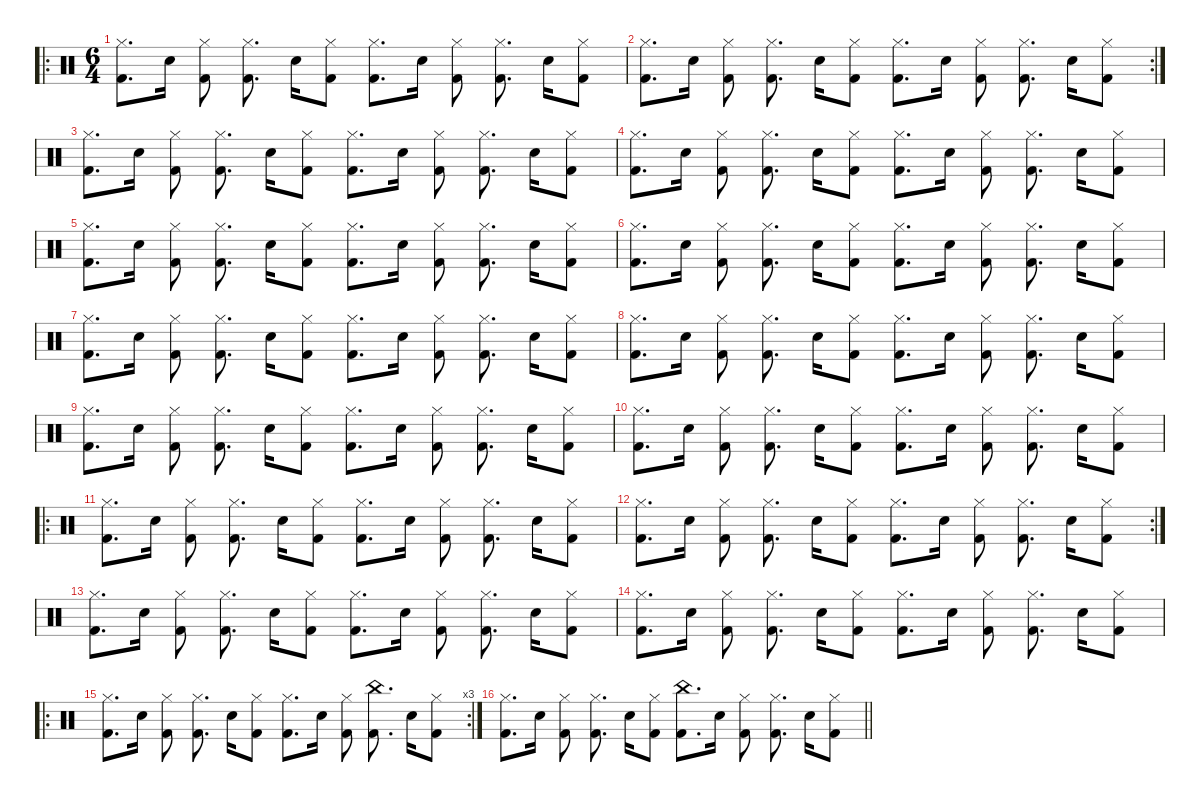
\defaultSystemsLayout 4
\hideDynamics
\bracketExtendMode nobrackets
\singleTrackTrackNamePolicy hidden
\multiTrackTrackNamePolicy hidden
\firstSystemTrackNameMode fullname
\firstSystemTrackNameOrientation horizontal
\otherSystemsTrackNameOrientation horizontal
\track ("Percussion" "drm.") {instrument percussion}
\staff {score}
\articulation defaults
\ro
\ts (6 4)
\tempo (98 hide)
\clef neutral
\ks c
("Hi-Hat (closed)" "Kick (hit) 2").8{d dy mf beam Down} "Snare (hit) 2".16{dy f beam Down} ("Hi-Hat (closed)" "Kick (hit) 2").8{dy mf beam Down beam split} ("Hi-Hat (closed)" "Kick (hit) 2").8{d beam Down} "Snare (hit) 2".16{dy f beam Down} ("Hi-Hat (closed)" "Kick (hit) 2").8{dy mf beam Down} ("Hi-Hat (closed)" "Kick (hit) 2").8{d beam Down} "Snare (hit) 2".16{dy f beam Down} ("Hi-Hat (closed)" "Kick (hit) 2").8{dy mf beam Down beam split} ("Hi-Hat (closed)" "Kick (hit) 2").8{d beam Down} "Snare (hit) 2".16{dy f beam Down} ("Hi-Hat (closed)" "Kick (hit) 2").8{dy mf beam Down} |
\rc 2
\tempo (97 hide)
("Hi-Hat (closed)" "Kick (hit) 2").8{d beam Down} "Snare (hit) 2".16{dy f beam Down} ("Hi-Hat (closed)" "Kick (hit) 2").8{dy mf beam Down beam split} ("Hi-Hat (closed)" "Kick (hit) 2").8{d beam Down} "Snare (hit) 2".16{dy f beam Down} ("Hi-Hat (closed)" "Kick (hit) 2").8{dy mf beam Down} ("Hi-Hat (closed)" "Kick (hit) 2").8{d beam Down} "Snare (hit) 2".16{dy f beam Down} ("Hi-Hat (closed)" "Kick (hit) 2").8{dy mf beam Down beam split} ("Hi-Hat (closed)" "Kick (hit) 2").8{d beam Down} "Snare (hit) 2".16{dy f beam Down} ("Hi-Hat (closed)" "Kick (hit) 2").8{dy mf beam Down} |
\tempo (98 hide)
("Hi-Hat (closed)" "Kick (hit) 2").8{d beam Down} "Snare (hit) 2".16{dy f beam Down} ("Hi-Hat (closed)" "Kick (hit) 2").8{dy mf beam Down beam split} ("Hi-Hat (closed)" "Kick (hit) 2").8{d beam Down} "Snare (hit) 2".16{dy f beam Down} ("Hi-Hat (closed)" "Kick (hit) 2").8{dy mf beam Down} ("Hi-Hat (closed)" "Kick (hit) 2").8{d beam Down} "Snare (hit) 2".16{dy f beam Down} ("Hi-Hat (closed)" "Kick (hit) 2").8{dy mf beam Down beam split} ("Hi-Hat (closed)" "Kick (hit) 2").8{d beam Down} "Snare (hit) 2".16{dy f beam Down} ("Hi-Hat (closed)" "Kick (hit) 2").8{dy mf beam Down} |
\tempo (97 hide)
("Hi-Hat (closed)" "Kick (hit) 2").8{d beam Down} "Snare (hit) 2".16{dy f beam Down} ("Hi-Hat (closed)" "Kick (hit) 2").8{dy mf beam Down beam split} ("Hi-Hat (closed)" "Kick (hit) 2").8{d beam Down} "Snare (hit) 2".16{dy f beam Down} ("Hi-Hat (closed)" "Kick (hit) 2").8{dy mf beam Down} ("Hi-Hat (closed)" "Kick (hit) 2").8{d beam Down} "Snare (hit) 2".16{dy f beam Down} ("Hi-Hat (closed)" "Kick (hit) 2").8{dy mf beam Down beam split} ("Hi-Hat (closed)" "Kick (hit) 2").8{d beam Down} "Snare (hit) 2".16{dy f beam Down} ("Hi-Hat (closed)" "Kick (hit) 2").8{dy mf beam Down} |
\tempo (98 hide)
("Hi-Hat (closed)" "Kick (hit) 2").8{d beam Down} "Snare (hit) 2".16{dy f beam Down} ("Hi-Hat (closed)" "Kick (hit) 2").8{dy mf beam Down beam split} ("Hi-Hat (closed)" "Kick (hit) 2").8{d beam Down} "Snare (hit) 2".16{dy f beam Down} ("Hi-Hat (closed)" "Kick (hit) 2").8{dy mf beam Down} ("Hi-Hat (closed)" "Kick (hit) 2").8{d beam Down} "Snare (hit) 2".16{dy f beam Down} ("Hi-Hat (closed)" "Kick (hit) 2").8{dy mf beam Down beam split} ("Hi-Hat (closed)" "Kick (hit) 2").8{d beam Down} "Snare (hit) 2".16{dy f beam Down} ("Hi-Hat (closed)" "Kick (hit) 2").8{dy mf beam Down} |
\tempo (97 hide)
("Hi-Hat (closed)" "Kick (hit) 2").8{d beam Down} "Snare (hit) 2".16{dy f beam Down} ("Hi-Hat (closed)" "Kick (hit) 2").8{dy mf beam Down beam split} ("Hi-Hat (closed)" "Kick (hit) 2").8{d beam Down} "Snare (hit) 2".16{dy f beam Down} ("Hi-Hat (closed)" "Kick (hit) 2").8{dy mf beam Down} ("Hi-Hat (closed)" "Kick (hit) 2").8{d beam Down} "Snare (hit) 2".16{dy f beam Down} ("Hi-Hat (closed)" "Kick (hit) 2").8{dy mf beam Down beam split} ("Hi-Hat (closed)" "Kick (hit) 2").8{d beam Down} "Snare (hit) 2".16{dy f beam Down} ("Hi-Hat (closed)" "Kick (hit) 2").8{dy mf beam Down} |
\tempo (98 hide)
("Hi-Hat (closed)" "Kick (hit) 2").8{d beam Down} "Snare (hit) 2".16{dy f beam Down} ("Hi-Hat (closed)" "Kick (hit) 2").8{dy mf beam Down beam split} ("Hi-Hat (closed)" "Kick (hit) 2").8{d beam Down} "Snare (hit) 2".16{dy f beam Down} ("Hi-Hat (closed)" "Kick (hit) 2").8{dy mf beam Down} ("Hi-Hat (closed)" "Kick (hit) 2").8{d beam Down} "Snare (hit) 2".16{dy f beam Down} ("Hi-Hat (closed)" "Kick (hit) 2").8{dy mf beam Down beam split} ("Hi-Hat (closed)" "Kick (hit) 2").8{d beam Down} "Snare (hit) 2".16{dy f beam Down} ("Hi-Hat (closed)" "Kick (hit) 2").8{dy mf beam Down} |
\tempo (97 hide)
("Hi-Hat (closed)" "Kick (hit) 2").8{d beam Down} "Snare (hit) 2".16{dy f beam Down} ("Hi-Hat (closed)" "Kick (hit) 2").8{dy mf beam Down beam split} ("Hi-Hat (closed)" "Kick (hit) 2").8{d beam Down} "Snare (hit) 2".16{dy f beam Down} ("Hi-Hat (closed)" "Kick (hit) 2").8{dy mf beam Down} ("Hi-Hat (closed)" "Kick (hit) 2").8{d beam Down} "Snare (hit) 2".16{dy f beam Down} ("Hi-Hat (closed)" "Kick (hit) 2").8{dy mf beam Down beam split} ("Hi-Hat (closed)" "Kick (hit) 2").8{d beam Down} "Snare (hit) 2".16{dy f beam Down} ("Hi-Hat (closed)" "Kick (hit) 2").8{dy mf beam Down} |
\tempo (97 hide)
("Hi-Hat (closed)" "Kick (hit) 2").8{d beam Down} "Snare (hit) 2".16{dy f beam Down} ("Hi-Hat (closed)" "Kick (hit) 2").8{dy mf beam Down beam split} ("Hi-Hat (closed)" "Kick (hit) 2").8{d beam Down} "Snare (hit) 2".16{dy f beam Down} ("Hi-Hat (closed)" "Kick (hit) 2").8{dy mf beam Down} ("Hi-Hat (closed)" "Kick (hit) 2").8{d beam Down} "Snare (hit) 2".16{dy f beam Down} ("Hi-Hat (closed)" "Kick (hit) 2").8{dy mf beam Down beam split} ("Hi-Hat (closed)" "Kick (hit) 2").8{d beam Down} "Snare (hit) 2".16{dy f beam Down} ("Hi-Hat (closed)" "Kick (hit) 2").8{dy mf beam Down} |
\tempo (98 hide)
("Hi-Hat (closed)" "Kick (hit) 2").8{d beam Down} "Snare (hit) 2".16{dy f beam Down} ("Hi-Hat (closed)" "Kick (hit) 2").8{dy mf beam Down beam split} ("Hi-Hat (closed)" "Kick (hit) 2").8{d beam Down} "Snare (hit) 2".16{dy f beam Down} ("Hi-Hat (closed)" "Kick (hit) 2").8{dy mf beam Down} ("Hi-Hat (closed)" "Kick (hit) 2").8{d beam Down} "Snare (hit) 2".16{dy f beam Down} ("Hi-Hat (closed)" "Kick (hit) 2").8{dy mf beam Down beam split} ("Hi-Hat (closed)" "Kick (hit) 2").8{d beam Down} "Snare (hit) 2".16{dy f beam Down} ("Hi-Hat (closed)" "Kick (hit) 2").8{dy mf beam Down} |
\ro
\tempo (97 hide)
("Hi-Hat (closed)" "Kick (hit) 2").8{d beam Down} "Snare (hit) 2".16{dy f beam Down} ("Hi-Hat (closed)" "Kick (hit) 2").8{dy mf beam Down beam split} ("Hi-Hat (closed)" "Kick (hit) 2").8{d beam Down} "Snare (hit) 2".16{dy f beam Down} ("Hi-Hat (closed)" "Kick (hit) 2").8{dy mf beam Down} ("Hi-Hat (closed)" "Kick (hit) 2").8{d beam Down} "Snare (hit) 2".16{dy f beam Down} ("Hi-Hat (closed)" "Kick (hit) 2").8{dy mf beam Down beam split} ("Hi-Hat (closed)" "Kick (hit) 2").8{d beam Down} "Snare (hit) 2".16{dy f beam Down} ("Hi-Hat (closed)" "Kick (hit) 2").8{dy mf beam Down} |
\rc 2
\tempo (98 hide)
("Hi-Hat (closed)" "Kick (hit) 2").8{d beam Down} "Snare (hit) 2".16{dy f beam Down} ("Hi-Hat (closed)" "Kick (hit) 2").8{dy mf beam Down beam split} ("Hi-Hat (closed)" "Kick (hit) 2").8{d beam Down} "Snare (hit) 2".16{dy f beam Down} ("Hi-Hat (closed)" "Kick (hit) 2").8{dy mf beam Down} ("Hi-Hat (closed)" "Kick (hit) 2").8{d beam Down} "Snare (hit) 2".16{dy f beam Down} ("Hi-Hat (closed)" "Kick (hit) 2").8{dy mf beam Down beam split} ("Hi-Hat (closed)" "Kick (hit) 2").8{d beam Down} "Snare (hit) 2".16{dy f beam Down} ("Hi-Hat (closed)" "Kick (hit) 2").8{dy mf beam Down} |
\tempo (97 hide)
("Hi-Hat (closed)" "Kick (hit) 2").8{d beam Down} "Snare (hit) 2".16{dy f beam Down} ("Hi-Hat (closed)" "Kick (hit) 2").8{dy mf beam Down beam split} ("Hi-Hat (closed)" "Kick (hit) 2").8{d beam Down} "Snare (hit) 2".16{dy f beam Down} ("Hi-Hat (closed)" "Kick (hit) 2").8{dy mf beam Down} ("Hi-Hat (closed)" "Kick (hit) 2").8{d beam Down} "Snare (hit) 2".16{dy f beam Down} ("Hi-Hat (closed)" "Kick (hit) 2").8{dy mf beam Down beam split} ("Hi-Hat (closed)" "Kick (hit) 2").8{d beam Down} "Snare (hit) 2".16{dy f beam Down} ("Hi-Hat (closed)" "Kick (hit) 2").8{dy mf beam Down} |
("Hi-Hat (closed)" "Kick (hit) 2").8{d beam Down} "Snare (hit) 2".16{dy f beam Down} ("Hi-Hat (closed)" "Kick (hit) 2").8{dy mf beam Down beam split} ("Hi-Hat (closed)" "Kick (hit) 2").8{d beam Down} "Snare (hit) 2".16{dy f beam Down} ("Hi-Hat (closed)" "Kick (hit) 2").8{dy mf beam Down} ("Hi-Hat (closed)" "Kick (hit) 2").8{d beam Down} "Snare (hit) 2".16{dy f beam Down} ("Hi-Hat (closed)" "Kick (hit) 2").8{dy mf beam Down beam split} ("Hi-Hat (closed)" "Kick (hit) 2").8{d beam Down} "Snare (hit) 2".16{dy f beam Down} ("Hi-Hat (closed)" "Kick (hit) 2").8{dy mf beam Down} |
\ro
\rc 3
\tempo (98 hide)
("Hi-Hat (closed)" "Kick (hit) 2").8{d beam Down} "Snare (hit) 2".16{dy f beam Down} ("Hi-Hat (closed)" "Kick (hit) 2").8{dy mf beam Down beam split} ("Hi-Hat (closed)" "Kick (hit) 2").8{d beam Down} "Snare (hit) 2".16{dy f beam Down} ("Hi-Hat (closed)" "Kick (hit) 2").8{dy mf beam Down} ("Hi-Hat (closed)" "Kick (hit) 2").8{d beam Down} "Snare (hit) 2".16{dy f beam Down} ("Hi-Hat (closed)" "Kick (hit) 2").8{dy mf beam Down beam split} ("China (hit)" "Kick (hit) 2").8{d dy f beam Down} "Snare (hit) 2".16{beam Down} ("Hi-Hat (closed)" "Kick (hit) 2").8{dy mf beam Down} |
\tempo (97 hide)
\barLineRight lightlight
("Hi-Hat (closed)" "Kick (hit) 2").8{d beam Down} "Snare (hit) 2".16{dy f beam Down} ("Hi-Hat (closed)" "Kick (hit) 2").8{dy mf beam Down beam split} ("Hi-Hat (closed)" "Kick (hit) 2").8{d beam Down} "Snare (hit) 2".16{dy f beam Down} ("Hi-Hat (closed)" "Kick (hit) 2").8{dy mf beam Down} ("China (hit)" "Kick (hit) 2").8{d dy f beam Down} "Snare (hit) 2".16{beam Down} ("Hi-Hat (closed)" "Kick (hit) 2").8{dy mf beam Down beam split} ("Hi-Hat (closed)" "Kick (hit) 2").8{d beam Down} "Snare (hit) 2".16{dy f beam Down} ("Hi-Hat (closed)" "Kick (hit) 2").8{dy mf beam Down}
